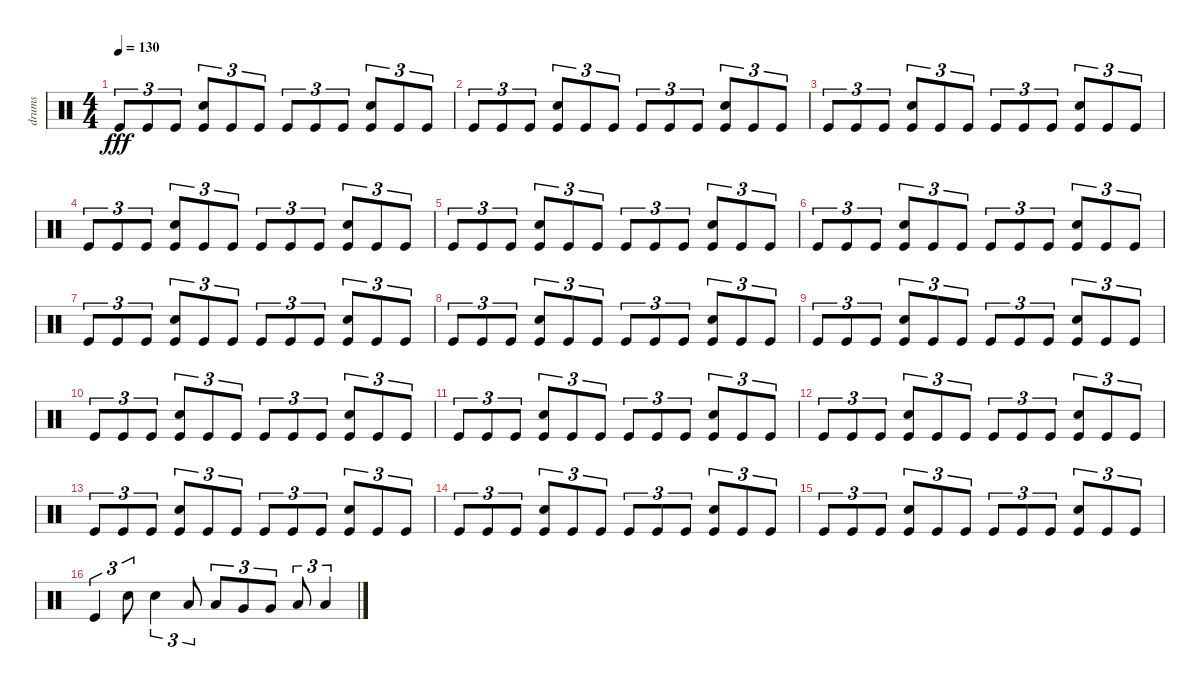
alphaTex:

\track ("drums" "drums") {instrument percussion}
\staff {score}
\articulation defaults
\ts (4 4)
\tempo 130
\clef neutral
\ks c "Kick (hit)".8{tu (3 2) dy fff} "Kick (hit)".8{tu (3 2)} "Kick (hit)".8{tu (3 2)}
("Electric Snare (hit)" "Kick (hit)").8{tu (3 2)} "Kick (hit)".8{tu (3 2)} "Kick (hit)".8{tu (3 2)} "Kick (hit)".8{tu (3 2)} "Kick (hit)".8{tu (3 2)} "Kick (hit)".8{tu (3 2)} ("Electric Snare (hit)" "Kick (hit)").8{tu (3 2)} "Kick (hit)".8{tu (3 2)} "Kick (hit)".8{tu (3 2)} |
"Kick (hit)".8{tu (3 2)} "Kick (hit)".8{tu (3 2)} "Kick (hit)".8{tu (3 2)} ("Electric Snare (hit)" "Kick (hit)").8{tu (3 2)} "Kick (hit)".8{tu (3 2)} "Kick (hit)".8{tu (3 2)} "Kick (hit)".8{tu (3 2)} "Kick (hit)".8{tu (3 2)} "Kick (hit)".8{tu (3 2)} ("Electric Snare (hit)" "Kick (hit)").8{tu (3 2)} "Kick (hit)".8{tu (3 2)} "Kick (hit)".8{tu (3 2)} |
"Kick (hit)".8{tu (3 2)} "Kick (hit)".8{tu (3 2)} "Kick (hit)".8{tu (3 2)} ("Electric Snare (hit)" "Kick (hit)").8{tu (3 2)} "Kick (hit)".8{tu (3 2)} "Kick (hit)".8{tu (3 2)} "Kick (hit)".8{tu (3 2)} "Kick (hit)".8{tu (3 2)} "Kick (hit)".8{tu (3 2)} ("Electric Snare (hit)" "Kick (hit)").8{tu (3 2)} "Kick (hit)".8{tu (3 2)} "Kick (hit)".8{tu (3 2)} |
"Kick (hit)".8{tu (3 2)} "Kick (hit)".8{tu (3 2)} "Kick (hit)".8{tu (3 2)} ("Electric Snare (hit)" "Kick (hit)").8{tu (3 2)} "Kick (hit)".8{tu (3 2)} "Kick (hit)".8{tu (3 2)} "Kick (hit)".8{tu (3 2)} "Kick (hit)".8{tu (3 2)} "Kick (hit)".8{tu (3 2)} ("Electric Snare (hit)" "Kick (hit)").8{tu (3 2)} "Kick (hit)".8{tu (3 2)} "Kick (hit)".8{tu (3 2)} |
"Kick (hit)".8{tu (3 2)} "Kick (hit)".8{tu (3 2)} "Kick (hit)".8{tu (3 2)} ("Electric Snare (hit)" "Kick (hit)").8{tu (3 2)} "Kick (hit)".8{tu (3 2)} "Kick (hit)".8{tu (3 2)} "Kick (hit)".8{tu (3 2)} "Kick (hit)".8{tu (3 2)} "Kick (hit)".8{tu (3 2)} ("Electric Snare (hit)" "Kick (hit)").8{tu (3 2)} "Kick (hit)".8{tu (3 2)} "Kick (hit)".8{tu (3 2)} |
"Kick (hit)".8{tu (3 2)} "Kick (hit)".8{tu (3 2)} "Kick (hit)".8{tu (3 2)} ("Electric Snare (hit)" "Kick (hit)").8{tu (3 2)} "Kick (hit)".8{tu (3 2)} "Kick (hit)".8{tu (3 2)} "Kick (hit)".8{tu (3 2)} "Kick (hit)".8{tu (3 2)} "Kick (hit)".8{tu (3 2)} ("Electric Snare (hit)" "Kick (hit)").8{tu (3 2)} "Kick (hit)".8{tu (3 2)} "Kick (hit)".8{tu (3 2)} |
"Kick (hit)".8{tu (3 2)} "Kick (hit)".8{tu (3 2)} "Kick (hit)".8{tu (3 2)} ("Electric Snare (hit)" "Kick (hit)").8{tu (3 2)} "Kick (hit)".8{tu (3 2)} "Kick (hit)".8{tu (3 2)} "Kick (hit)".8{tu (3 2)} "Kick (hit)".8{tu (3 2)} "Kick (hit)".8{tu (3 2)} ("Electric Snare (hit)" "Kick (hit)").8{tu (3 2)} "Kick (hit)".8{tu (3 2)} "Kick (hit)".8{tu (3 2)} |
"Kick (hit)".8{tu (3 2)} "Kick (hit)".8{tu (3 2)} "Kick (hit)".8{tu (3 2)} ("Electric Snare (hit)" "Kick (hit)").8{tu (3 2)} "Kick (hit)".8{tu (3 2)} "Kick (hit)".8{tu (3 2)} "Kick (hit)".8{tu (3 2)} "Kick (hit)".8{tu (3 2)} "Kick (hit)".8{tu (3 2)} ("Electric Snare (hit)" "Kick (hit)").8{tu (3 2)} "Kick (hit)".8{tu (3 2)} "Kick (hit)".8{tu (3 2)} |
"Kick (hit)".8{tu (3 2)} "Kick (hit)".8{tu (3 2)} "Kick (hit)".8{tu (3 2)} ("Electric Snare (hit)" "Kick (hit)").8{tu (3 2)} "Kick (hit)".8{tu (3 2)} "Kick (hit)".8{tu (3 2)} "Kick (hit)".8{tu (3 2)} "Kick (hit)".8{tu (3 2)} "Kick (hit)".8{tu (3 2)} ("Electric Snare (hit)" "Kick (hit)").8{tu (3 2)} "Kick (hit)".8{tu (3 2)} "Kick (hit)".8{tu (3 2)} |
"Kick (hit)".8{tu (3 2)} "Kick (hit)".8{tu (3 2)} "Kick (hit)".8{tu (3 2)} ("Electric Snare (hit)" "Kick (hit)").8{tu (3 2)} "Kick (hit)".8{tu (3 2)} "Kick (hit)".8{tu (3 2)} "Kick (hit)".8{tu (3 2)} "Kick (hit)".8{tu (3 2)} "Kick (hit)".8{tu (3 2)} ("Electric Snare (hit)" "Kick (hit)").8{tu (3 2)} "Kick (hit)".8{tu (3 2)} "Kick (hit)".8{tu (3 2)} |
"Kick (hit)".8{tu (3 2)} "Kick (hit)".8{tu (3 2)} "Kick (hit)".8{tu (3 2)} ("Electric Snare (hit)" "Kick (hit)").8{tu (3 2)} "Kick (hit)".8{tu (3 2)} "Kick (hit)".8{tu (3 2)} "Kick (hit)".8{tu (3 2)} "Kick (hit)".8{tu (3 2)} "Kick (hit)".8{tu (3 2)} ("Electric Snare (hit)" "Kick (hit)").8{tu (3 2)} "Kick (hit)".8{tu (3 2)} "Kick (hit)".8{tu (3 2)} |
"Kick (hit)".8{tu (3 2)} "Kick (hit)".8{tu (3 2)} "Kick (hit)".8{tu (3 2)} ("Electric Snare (hit)" "Kick (hit)").8{tu (3 2)} "Kick (hit)".8{tu (3 2)} "Kick (hit)".8{tu (3 2)} "Kick (hit)".8{tu (3 2)} "Kick (hit)".8{tu (3 2)} "Kick (hit)".8{tu (3 2)} ("Electric Snare (hit)" "Kick (hit)").8{tu (3 2)} "Kick (hit)".8{tu (3 2)} "Kick (hit)".8{tu (3 2)} |
"Kick (hit)".8{tu (3 2)} "Kick (hit)".8{tu (3 2)} "Kick (hit)".8{tu (3 2)} ("Electric Snare (hit)" "Kick (hit)").8{tu (3 2)} "Kick (hit)".8{tu (3 2)} "Kick (hit)".8{tu (3 2)} "Kick (hit)".8{tu (3 2)} "Kick (hit)".8{tu (3 2)} "Kick (hit)".8{tu (3 2)} ("Electric Snare (hit)" "Kick (hit)").8{tu (3 2)} "Kick (hit)".8{tu (3 2)} "Kick (hit)".8{tu (3 2)} |
"Kick (hit)".8{tu (3 2)} "Kick (hit)".8{tu (3 2)} "Kick (hit)".8{tu (3 2)} ("Electric Snare (hit)" "Kick (hit)").8{tu (3 2)} "Kick (hit)".8{tu (3 2)} "Kick (hit)".8{tu (3 2)} "Kick (hit)".8{tu (3 2)} "Kick (hit)".8{tu (3 2)} "Kick (hit)".8{tu (3 2)} ("Electric Snare (hit)" "Kick (hit)").8{tu (3 2)} "Kick (hit)".8{tu (3 2)} "Kick (hit)".8{tu (3 2)} |
"Kick (hit)".8{tu (3 2)} "Kick (hit)".8{tu (3 2)} "Kick (hit)".8{tu (3 2)} ("Electric Snare (hit)" "Kick (hit)").8{tu (3 2)} "Kick (hit)".8{tu (3 2)} "Kick (hit)".8{tu (3 2)} "Kick (hit)".8{tu (3 2)} "Kick (hit)".8{tu (3 2)} "Kick (hit)".8{tu (3 2)} ("Electric Snare (hit)" "Kick (hit)").8{tu (3 2)} "Kick (hit)".8{tu (3 2)} "Kick (hit)".8{tu (3 2)} |
"Kick (hit)".4{tu (3 2)} "Electric Snare (hit)".8{tu (3 2)} "Electric Snare (hit)".4{tu (3 2)} "Low Tom (hit)".8{tu (3 2)} "Low Tom (hit)".8{tu (3 2)} "Very Low Tom (hit)".8{tu (3 2)} "Very Low Tom (hit)".8{tu (3 2)} "Low Floor Tom (hit)".8{tu (3 2)} "Low Floor Tom (hit)".4{tu (3 2)}
